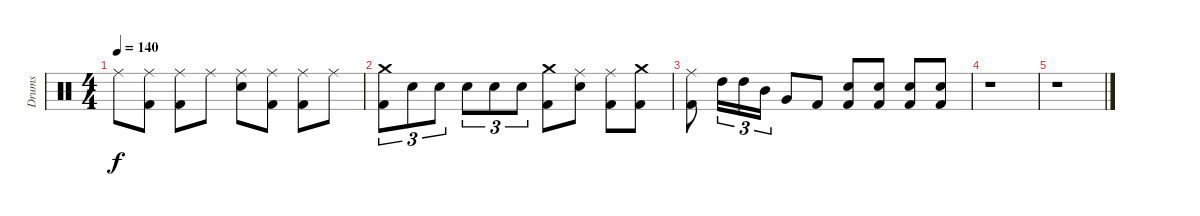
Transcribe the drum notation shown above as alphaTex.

\track ("Drums" "Drums") {instrument percussion}
\staff {score}
\articulation defaults
\ts (4 4)
\tempo 140
\clef neutral
\ks c "Ride (middle)".8{dy f}
("Ride (middle)" "Kick (hit) 2").8 ("Ride (middle)" "Kick (hit) 2").8 "Ride (middle)".8 ("Ride (middle)" "Electric Snare (hit)").8 ("Ride (middle)" "Kick (hit) 2").8 ("Ride (middle)" "Kick (hit) 2").8 "Ride (middle)".8 |
("Crash medium (hit)" "Kick (hit) 2").8{tu (3 2)} "Electric Snare (hit)".8{tu (3 2)} "Electric Snare (hit)".8{tu (3 2)} "Electric Snare (hit)".8{tu (3 2)} "Electric Snare (hit)".8{tu (3 2)} "Electric Snare (hit)".8{tu (3 2)} ("Crash medium (hit)" "Kick (hit) 2").8 ("Ride (middle)" "Electric Snare (hit)").8 ("Ride (middle)" "Kick (hit) 2").8 ("Crash medium (hit)" "Kick (hit) 2").8 |
("Ride (middle)" "Kick (hit) 2").8 "High Tom (hit)".16{tu (3 2)} "High Tom (hit)".16{tu (3 2)} "Mid Tom (hit)".16{tu (3 2)} "Very Low Tom (hit)".8 "Kick (hit) 2".8 ("Electric Snare (hit)" "Kick (hit) 2").8 ("Electric Snare (hit)" "Kick (hit) 2").8 ("Electric Snare (hit)" "Kick (hit) 2").8 ("Electric Snare (hit)" "Kick (hit) 2").8 |
r.1 |
r.1
